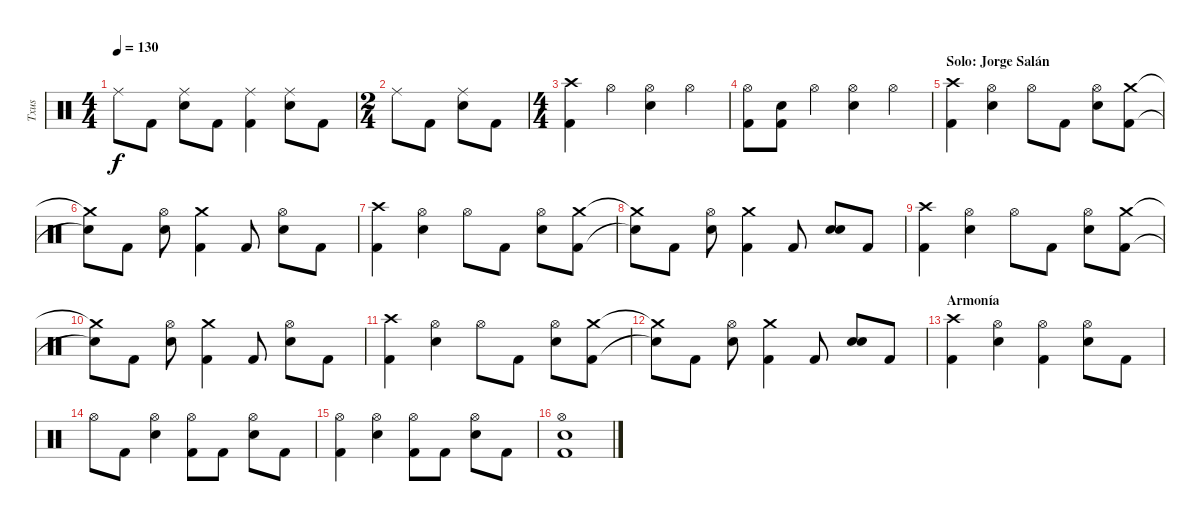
\track ("Txus" "Txus") {instrument percussion}
\staff {score}
\articulation defaults
\ts (4 4)
\tempo 130
\clef neutral
\ks c "Ride (middle)".8{dy f} "Kick (hit) 2".8
("Electric Snare (hit)" "Ride (middle)").8 "Kick (hit) 2".8 ("Kick (hit) 2" "Ride (middle)").4 ("Electric Snare (hit)" "Ride (middle)").8 "Kick (hit) 2".8 |
\ts (2 4)
"Ride (middle)".8 "Kick (hit) 2".8 ("Electric Snare (hit)" "Ride (middle)").8 "Kick (hit) 2".8 |
\ts (4 4)
("Kick (hit) 2" "Crash high (hit)").4{volume 13} "Hi-Hat (open)".4 ("Electric Snare (hit)" "Hi-Hat (open)").4 "Hi-Hat (open)".4 |
("Kick (hit) 2" "Hi-Hat (open)").8 ("Kick (hit) 2" "Electric Snare (hit)").8 "Hi-Hat (open)".4 ("Electric Snare (hit)" "Hi-Hat (open)").4 "Hi-Hat (open)".4 |
\section ("" "Solo: Jorge Salán")
("Kick (hit) 2" "Crash high (hit)").4{volume 16} ("Electric Snare (hit)" "Hi-Hat (open)").4 "Hi-Hat (open)".8 "Kick (hit) 2".8 ("Electric Snare (hit)" "Hi-Hat (open)").8 ("Kick (hit) 2" "Crash medium (hit)").8 |
("Snare (hit)"{t} "Crash medium (hit)"{t}).8 "Kick (hit) 2".8 ("Electric Snare (hit)" "Hi-Hat (open)").8 ("Kick (hit) 2" "Crash medium (hit)").4 "Kick (hit) 2".8 ("Electric Snare (hit)" "Hi-Hat (open)").8 "Kick (hit) 2".8 |
("Kick (hit) 2" "Crash high (hit)").4 ("Electric Snare (hit)" "Hi-Hat (open)").4 "Hi-Hat (open)".8 "Kick (hit) 2".8 ("Electric Snare (hit)" "Hi-Hat (open)").8 ("Kick (hit) 2" "Crash medium (hit)").8 |
("Snare (hit)"{t} "Crash medium (hit)"{t}).8 "Kick (hit) 2".8 ("Electric Snare (hit)" "Hi-Hat (open)").8 ("Kick (hit) 2" "Crash medium (hit)").4 "Kick (hit) 2".8 ("Electric Snare (hit)" "Snare (hit) 2").8 "Kick (hit) 2".8 |
("Kick (hit) 2" "Crash high (hit)").4 ("Electric Snare (hit)" "Hi-Hat (open)").4 "Hi-Hat (open)".8 "Kick (hit) 2".8 ("Electric Snare (hit)" "Hi-Hat (open)").8 ("Kick (hit) 2" "Crash medium (hit)").8 |
("Snare (hit)"{t} "Crash medium (hit)"{t}).8 "Kick (hit) 2".8 ("Electric Snare (hit)" "Hi-Hat (open)").8 ("Kick (hit) 2" "Crash medium (hit)").4 "Kick (hit) 2".8 ("Electric Snare (hit)" "Hi-Hat (open)").8 "Kick (hit) 2".8 |
("Kick (hit) 2" "Crash high (hit)").4 ("Electric Snare (hit)" "Hi-Hat (open)").4 "Hi-Hat (open)".8 "Kick (hit) 2".8 ("Electric Snare (hit)" "Hi-Hat (open)").8 ("Kick (hit) 2" "Crash medium (hit)").8 |
("Snare (hit)"{t} "Crash medium (hit)"{t}).8 "Kick (hit) 2".8 ("Electric Snare (hit)" "Hi-Hat (open)").8 ("Kick (hit) 2" "Crash medium (hit)").4 "Kick (hit) 2".8 ("Electric Snare (hit)" "Snare (hit) 2").8 "Kick (hit) 2".8 |
\section ("" "Armonía")
("Kick (hit) 2" "Crash high (hit)").4 ("Electric Snare (hit)" "Hi-Hat (open)").4 ("Kick (hit) 2" "Hi-Hat (open)").4 ("Electric Snare (hit)" "Hi-Hat (open)").8 "Kick (hit) 2".8 |
"Hi-Hat (open)".8 "Kick (hit) 2".8 ("Electric Snare (hit)" "Hi-Hat (open)").4 ("Kick (hit) 2" "Hi-Hat (open)").8 "Kick (hit) 2".8 ("Electric Snare (hit)" "Hi-Hat (open)").8 "Kick (hit) 2".8 |
("Kick (hit) 2" "Hi-Hat (open)").4 ("Electric Snare (hit)" "Hi-Hat (open)").4 ("Kick (hit) 2" "Hi-Hat (open)").8 "Kick (hit) 2".8 ("Electric Snare (hit)" "Hi-Hat (open)").8 "Kick (hit) 2".8 |
("Kick (hit) 2" "Electric Snare (hit)" "Hi-Hat (open)").1
